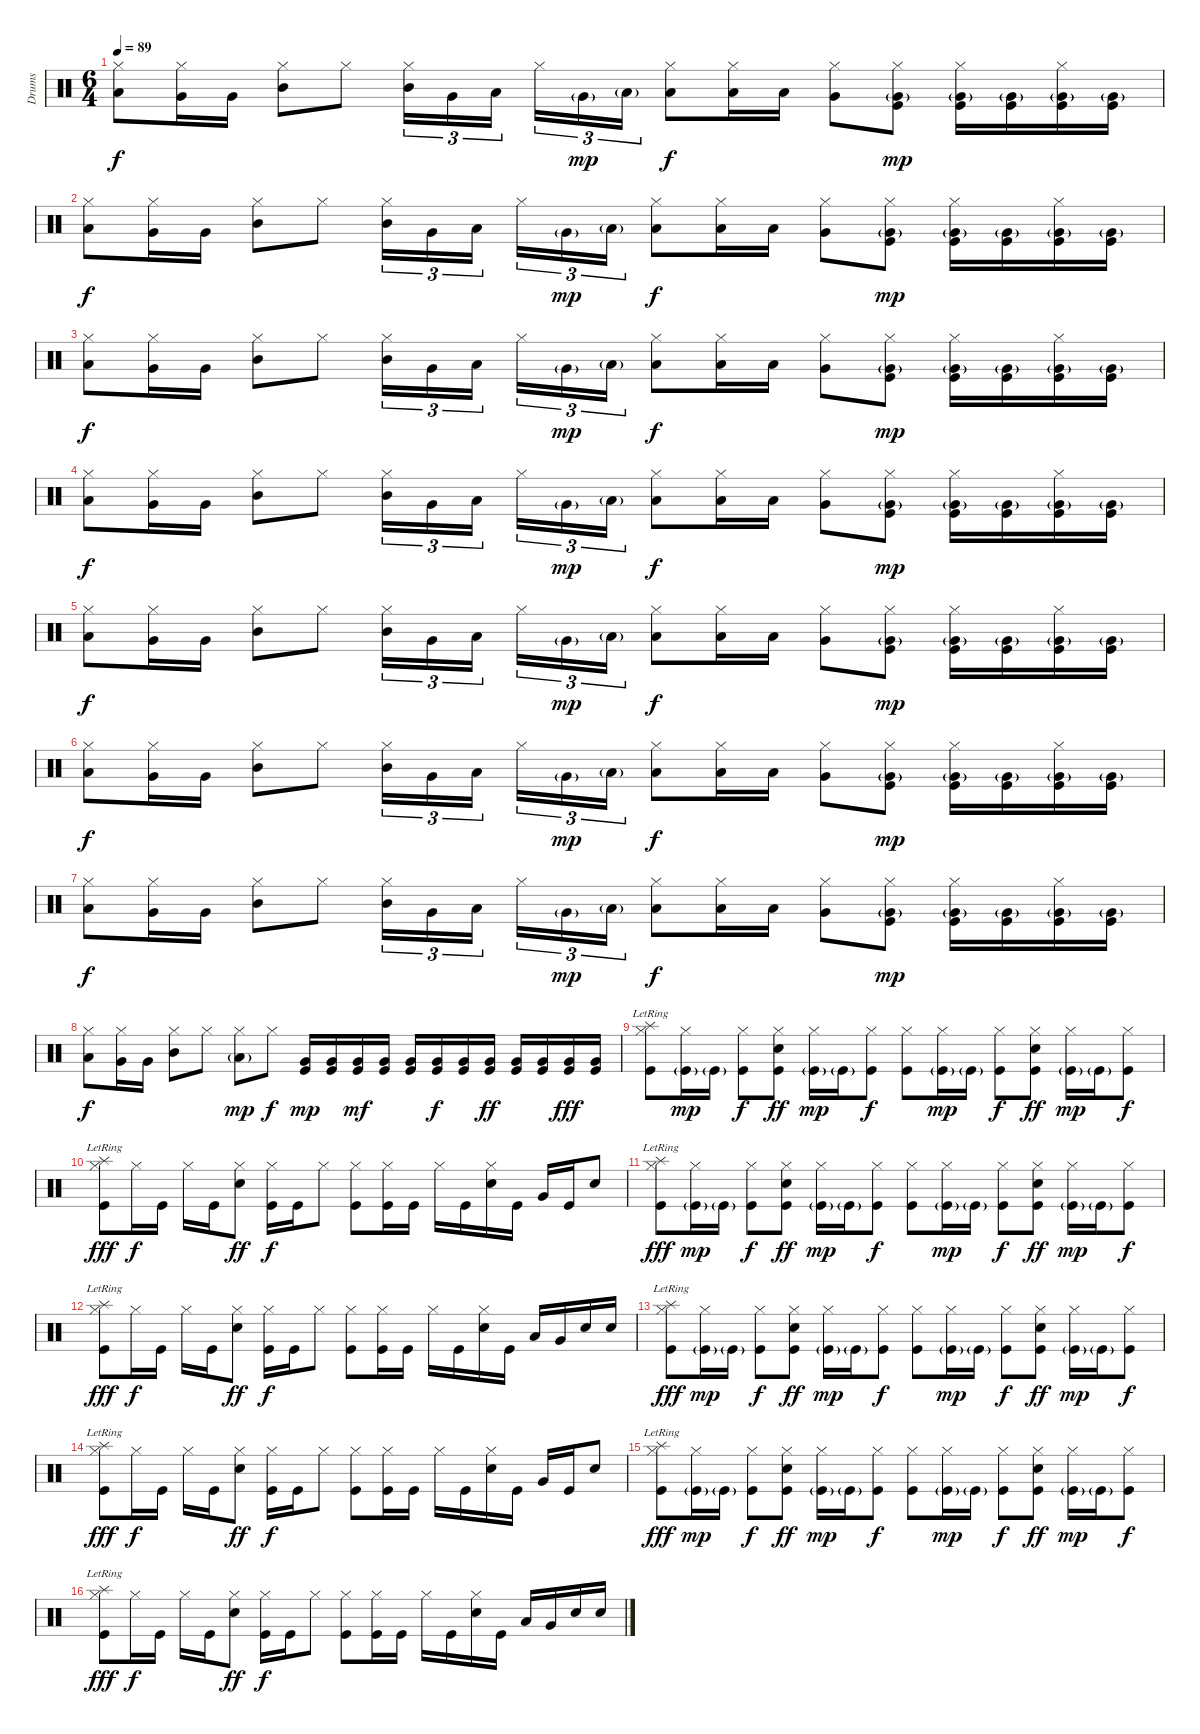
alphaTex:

\track ("Drums" "Drums") {instrument percussion}
\staff {score}
\articulation defaults
\ts (6 4)
\tempo 89
\clef neutral
\ks c
("Low Tom (hit)" "Hi-Hat (closed)").8{dy f} ("Very Low Tom (hit)" "Hi-Hat (closed)").16 "Very Low Tom (hit)".16 ("Mid Tom (hit)" "Hi-Hat (closed)").8 "Hi-Hat (closed)".8 ("Mid Tom (hit)" "Hi-Hat (closed)").16{tu (3 2)} "Very Low Tom (hit)".16{tu (3 2)} "Low Tom (hit)".16{tu (3 2)} "Hi-Hat (closed)".16{tu (3 2)} "Very Low Tom (hit)"{g}.16{tu (3 2) dy mp} "Low Tom (hit)"{g}.16{tu (3 2)} ("Low Tom (hit)" "Hi-Hat (closed)").8{dy f} ("Low Tom (hit)" "Hi-Hat (closed)").16 "Low Tom (hit)".16 ("Very Low Tom (hit)" "Hi-Hat (closed)").8 ("Very Low Tom (hit)"{g} "Hi-Hat (closed)" "Kick (hit)").8{dy mp} ("Very Low Tom (hit)"{g} "Hi-Hat (closed)" "Kick (hit)").16 ("Very Low Tom (hit)"{g} "Kick (hit)").16 ("Very Low Tom (hit)"{g} "Hi-Hat (closed)" "Kick (hit)").16 ("Very Low Tom (hit)"{g} "Kick (hit)").16 |
("Low Tom (hit)" "Hi-Hat (closed)").8{dy f} ("Very Low Tom (hit)" "Hi-Hat (closed)").16 "Very Low Tom (hit)".16 ("Mid Tom (hit)" "Hi-Hat (closed)").8 "Hi-Hat (closed)".8 ("Mid Tom (hit)" "Hi-Hat (closed)").16{tu (3 2)} "Very Low Tom (hit)".16{tu (3 2)} "Low Tom (hit)".16{tu (3 2)} "Hi-Hat (closed)".16{tu (3 2)} "Very Low Tom (hit)"{g}.16{tu (3 2) dy mp} "Low Tom (hit)"{g}.16{tu (3 2)} ("Low Tom (hit)" "Hi-Hat (closed)").8{dy f} ("Low Tom (hit)" "Hi-Hat (closed)").16 "Low Tom (hit)".16 ("Very Low Tom (hit)" "Hi-Hat (closed)").8 ("Very Low Tom (hit)"{g} "Hi-Hat (closed)" "Kick (hit)").8{dy mp} ("Very Low Tom (hit)"{g} "Hi-Hat (closed)" "Kick (hit)").16 ("Very Low Tom (hit)"{g} "Kick (hit)").16 ("Very Low Tom (hit)"{g} "Hi-Hat (closed)" "Kick (hit)").16 ("Very Low Tom (hit)"{g} "Kick (hit)").16 |
("Low Tom (hit)" "Hi-Hat (closed)").8{dy f} ("Very Low Tom (hit)" "Hi-Hat (closed)").16 "Very Low Tom (hit)".16 ("Mid Tom (hit)" "Hi-Hat (closed)").8 "Hi-Hat (closed)".8 ("Mid Tom (hit)" "Hi-Hat (closed)").16{tu (3 2)} "Very Low Tom (hit)".16{tu (3 2)} "Low Tom (hit)".16{tu (3 2)} "Hi-Hat (closed)".16{tu (3 2)} "Very Low Tom (hit)"{g}.16{tu (3 2) dy mp} "Low Tom (hit)"{g}.16{tu (3 2)} ("Low Tom (hit)" "Hi-Hat (closed)").8{dy f} ("Low Tom (hit)" "Hi-Hat (closed)").16 "Low Tom (hit)".16 ("Very Low Tom (hit)" "Hi-Hat (closed)").8 ("Very Low Tom (hit)"{g} "Hi-Hat (closed)" "Kick (hit)").8{dy mp} ("Very Low Tom (hit)"{g} "Hi-Hat (closed)" "Kick (hit)").16 ("Very Low Tom (hit)"{g} "Kick (hit)").16 ("Very Low Tom (hit)"{g} "Hi-Hat (closed)" "Kick (hit)").16 ("Very Low Tom (hit)"{g} "Kick (hit)").16 |
("Low Tom (hit)" "Hi-Hat (closed)").8{dy f} ("Very Low Tom (hit)" "Hi-Hat (closed)").16 "Very Low Tom (hit)".16 ("Mid Tom (hit)" "Hi-Hat (closed)").8 "Hi-Hat (closed)".8 ("Mid Tom (hit)" "Hi-Hat (closed)").16{tu (3 2)} "Very Low Tom (hit)".16{tu (3 2)} "Low Tom (hit)".16{tu (3 2)} "Hi-Hat (closed)".16{tu (3 2)} "Very Low Tom (hit)"{g}.16{tu (3 2) dy mp} "Low Tom (hit)"{g}.16{tu (3 2)} ("Low Tom (hit)" "Hi-Hat (closed)").8{dy f} ("Low Tom (hit)" "Hi-Hat (closed)").16 "Low Tom (hit)".16 ("Very Low Tom (hit)" "Hi-Hat (closed)").8 ("Very Low Tom (hit)"{g} "Hi-Hat (closed)" "Kick (hit)").8{dy mp} ("Very Low Tom (hit)"{g} "Hi-Hat (closed)" "Kick (hit)").16 ("Very Low Tom (hit)"{g} "Kick (hit)").16 ("Very Low Tom (hit)"{g} "Hi-Hat (closed)" "Kick (hit)").16 ("Very Low Tom (hit)"{g} "Kick (hit)").16 |
("Low Tom (hit)" "Hi-Hat (closed)").8{dy f} ("Very Low Tom (hit)" "Hi-Hat (closed)").16 "Very Low Tom (hit)".16 ("Mid Tom (hit)" "Hi-Hat (closed)").8 "Hi-Hat (closed)".8 ("Mid Tom (hit)" "Hi-Hat (closed)").16{tu (3 2)} "Very Low Tom (hit)".16{tu (3 2)} "Low Tom (hit)".16{tu (3 2)} "Hi-Hat (closed)".16{tu (3 2)} "Very Low Tom (hit)"{g}.16{tu (3 2) dy mp} "Low Tom (hit)"{g}.16{tu (3 2)} ("Low Tom (hit)" "Hi-Hat (closed)").8{dy f} ("Low Tom (hit)" "Hi-Hat (closed)").16 "Low Tom (hit)".16 ("Very Low Tom (hit)" "Hi-Hat (closed)").8 ("Very Low Tom (hit)"{g} "Hi-Hat (closed)" "Kick (hit)").8{dy mp} ("Very Low Tom (hit)"{g} "Hi-Hat (closed)" "Kick (hit)").16 ("Very Low Tom (hit)"{g} "Kick (hit)").16 ("Very Low Tom (hit)"{g} "Hi-Hat (closed)" "Kick (hit)").16 ("Very Low Tom (hit)"{g} "Kick (hit)").16 |
("Low Tom (hit)" "Hi-Hat (closed)").8{dy f} ("Very Low Tom (hit)" "Hi-Hat (closed)").16 "Very Low Tom (hit)".16 ("Mid Tom (hit)" "Hi-Hat (closed)").8 "Hi-Hat (closed)".8 ("Mid Tom (hit)" "Hi-Hat (closed)").16{tu (3 2)} "Very Low Tom (hit)".16{tu (3 2)} "Low Tom (hit)".16{tu (3 2)} "Hi-Hat (closed)".16{tu (3 2)} "Very Low Tom (hit)"{g}.16{tu (3 2) dy mp} "Low Tom (hit)"{g}.16{tu (3 2)} ("Low Tom (hit)" "Hi-Hat (closed)").8{dy f} ("Low Tom (hit)" "Hi-Hat (closed)").16 "Low Tom (hit)".16 ("Very Low Tom (hit)" "Hi-Hat (closed)").8 ("Very Low Tom (hit)"{g} "Hi-Hat (closed)" "Kick (hit)").8{dy mp} ("Very Low Tom (hit)"{g} "Hi-Hat (closed)" "Kick (hit)").16 ("Very Low Tom (hit)"{g} "Kick (hit)").16 ("Very Low Tom (hit)"{g} "Hi-Hat (closed)" "Kick (hit)").16 ("Very Low Tom (hit)"{g} "Kick (hit)").16 |
("Low Tom (hit)" "Hi-Hat (closed)").8{dy f} ("Very Low Tom (hit)" "Hi-Hat (closed)").16 "Very Low Tom (hit)".16 ("Mid Tom (hit)" "Hi-Hat (closed)").8 "Hi-Hat (closed)".8 ("Mid Tom (hit)" "Hi-Hat (closed)").16{tu (3 2)} "Very Low Tom (hit)".16{tu (3 2)} "Low Tom (hit)".16{tu (3 2)} "Hi-Hat (closed)".16{tu (3 2)} "Very Low Tom (hit)"{g}.16{tu (3 2) dy mp} "Low Tom (hit)"{g}.16{tu (3 2)} ("Low Tom (hit)" "Hi-Hat (closed)").8{dy f} ("Low Tom (hit)" "Hi-Hat (closed)").16 "Low Tom (hit)".16 ("Very Low Tom (hit)" "Hi-Hat (closed)").8 ("Very Low Tom (hit)"{g} "Hi-Hat (closed)" "Kick (hit)").8{dy mp} ("Very Low Tom (hit)"{g} "Hi-Hat (closed)" "Kick (hit)").16 ("Very Low Tom (hit)"{g} "Kick (hit)").16 ("Very Low Tom (hit)"{g} "Hi-Hat (closed)" "Kick (hit)").16 ("Very Low Tom (hit)"{g} "Kick (hit)").16 |
("Low Tom (hit)" "Hi-Hat (closed)").8{dy f} ("Very Low Tom (hit)" "Hi-Hat (closed)").16 "Very Low Tom (hit)".16 ("Mid Tom (hit)" "Hi-Hat (closed)").8 "Hi-Hat (closed)".8 ("Low Tom (hit)"{g} "Hi-Hat (closed)").8{dy mp} "Hi-Hat (closed)".8{dy f} ("Very Low Tom (hit)" "Kick (hit)").16{dy mp} ("Very Low Tom (hit)" "Kick (hit)").16 ("Very Low Tom (hit)" "Kick (hit)").16{dy mf} ("Very Low Tom (hit)" "Kick (hit)").16 ("Very Low Tom (hit)" "Kick (hit)").16 ("Very Low Tom (hit)" "Kick (hit)").16{dy f} ("Very Low Tom (hit)" "Kick (hit)").16 ("Very Low Tom (hit)" "Kick (hit)").16{dy ff} ("Very Low Tom (hit)" "Kick (hit)").16 ("Very Low Tom (hit)" "Kick (hit)").16 ("Very Low Tom (hit)" "Kick (hit)").16{dy fff} ("Very Low Tom (hit)" "Kick (hit)").16 |
("Splash (hit)"{lr} "Hi-Hat (closed)" "Kick (hit)").8 ("Hi-Hat (closed)" "Kick (hit)"{g}).16{dy mp} "Kick (hit)"{g}.16 ("Hi-Hat (closed)" "Kick (hit)").8{dy f} ("Hi-Hat (closed)" "Snare (hit) 2" "Kick (hit)").8{dy ff} ("Hi-Hat (closed)" "Kick (hit)"{g}).16{dy mp} "Kick (hit)"{g}.16 ("Hi-Hat (closed)" "Kick (hit)").8{dy f} ("Hi-Hat (closed)" "Kick (hit)").8 ("Hi-Hat (closed)" "Kick (hit)"{g}).16{dy mp} "Kick (hit)"{g}.16 ("Hi-Hat (closed)" "Kick (hit)").8{dy f} ("Hi-Hat (closed)" "Snare (hit) 2" "Kick (hit)").8{dy ff} ("Hi-Hat (closed)" "Kick (hit)"{g}).16{dy mp} "Kick (hit)"{g}.16 ("Hi-Hat (closed)" "Kick (hit)").8{dy f} |
("Splash (hit)"{lr} "Hi-Hat (closed)" "Kick (hit)").8{dy fff} "Hi-Hat (closed)".16{dy f} "Kick (hit)".16 "Hi-Hat (closed)".16 "Kick (hit)".16 ("Hi-Hat (closed)" "Snare (hit) 2").8{dy ff} ("Hi-Hat (closed)" "Kick (hit)").16{dy f} "Kick (hit)".16 "Hi-Hat (closed)".8 ("Hi-Hat (closed)" "Kick (hit)").8 ("Hi-Hat (closed)" "Kick (hit)").16 "Kick (hit)".16 "Hi-Hat (closed)".16 "Kick (hit)".16 ("Hi-Hat (closed)" "Snare (hit) 2").16 "Kick (hit)".16 "Very Low Tom (hit)".16 "Kick (hit)".16 "Snare (hit) 2".8 |
("Splash (hit)"{lr} "Hi-Hat (closed)" "Kick (hit)").8{dy fff} ("Hi-Hat (closed)" "Kick (hit)"{g}).16{dy mp} "Kick (hit)"{g}.16 ("Hi-Hat (closed)" "Kick (hit)").8{dy f} ("Hi-Hat (closed)" "Snare (hit) 2" "Kick (hit)").8{dy ff} ("Hi-Hat (closed)" "Kick (hit)"{g}).16{dy mp} "Kick (hit)"{g}.16 ("Hi-Hat (closed)" "Kick (hit)").8{dy f} ("Hi-Hat (closed)" "Kick (hit)").8 ("Hi-Hat (closed)" "Kick (hit)"{g}).16{dy mp} "Kick (hit)"{g}.16 ("Hi-Hat (closed)" "Kick (hit)").8{dy f} ("Hi-Hat (closed)" "Snare (hit) 2" "Kick (hit)").8{dy ff} ("Hi-Hat (closed)" "Kick (hit)"{g}).16{dy mp} "Kick (hit)"{g}.16 ("Hi-Hat (closed)" "Kick (hit)").8{dy f} |
("Splash (hit)"{lr} "Hi-Hat (closed)" "Kick (hit)").8{dy fff} "Hi-Hat (closed)".16{dy f} "Kick (hit)".16 "Hi-Hat (closed)".16 "Kick (hit)".16 ("Hi-Hat (closed)" "Snare (hit) 2").8{dy ff} ("Hi-Hat (closed)" "Kick (hit)").16{dy f} "Kick (hit)".16 "Hi-Hat (closed)".8 ("Hi-Hat (closed)" "Kick (hit)").8 ("Hi-Hat (closed)" "Kick (hit)").16 "Kick (hit)".16 "Hi-Hat (closed)".16 "Kick (hit)".16 ("Hi-Hat (closed)" "Snare (hit) 2").16 "Kick (hit)".16 "Low Tom (hit)".16 "Very Low Tom (hit)".16 "Snare (hit) 2".16 "Snare (hit) 2".16 |
("Splash (hit)"{lr} "Hi-Hat (closed)" "Kick (hit)").8{dy fff} ("Hi-Hat (closed)" "Kick (hit)"{g}).16{dy mp} "Kick (hit)"{g}.16 ("Hi-Hat (closed)" "Kick (hit)").8{dy f} ("Hi-Hat (closed)" "Snare (hit) 2" "Kick (hit)").8{dy ff} ("Hi-Hat (closed)" "Kick (hit)"{g}).16{dy mp} "Kick (hit)"{g}.16 ("Hi-Hat (closed)" "Kick (hit)").8{dy f} ("Hi-Hat (closed)" "Kick (hit)").8 ("Hi-Hat (closed)" "Kick (hit)"{g}).16{dy mp} "Kick (hit)"{g}.16 ("Hi-Hat (closed)" "Kick (hit)").8{dy f} ("Hi-Hat (closed)" "Snare (hit) 2" "Kick (hit)").8{dy ff} ("Hi-Hat (closed)" "Kick (hit)"{g}).16{dy mp} "Kick (hit)"{g}.16 ("Hi-Hat (closed)" "Kick (hit)").8{dy f} |
("Splash (hit)"{lr} "Hi-Hat (closed)" "Kick (hit)").8{dy fff} "Hi-Hat (closed)".16{dy f} "Kick (hit)".16 "Hi-Hat (closed)".16 "Kick (hit)".16 ("Hi-Hat (closed)" "Snare (hit) 2").8{dy ff} ("Hi-Hat (closed)" "Kick (hit)").16{dy f} "Kick (hit)".16 "Hi-Hat (closed)".8 ("Hi-Hat (closed)" "Kick (hit)").8 ("Hi-Hat (closed)" "Kick (hit)").16 "Kick (hit)".16 "Hi-Hat (closed)".16 "Kick (hit)".16 ("Hi-Hat (closed)" "Snare (hit) 2").16 "Kick (hit)".16 "Very Low Tom (hit)".16 "Kick (hit)".16 "Snare (hit) 2".8 |
("Splash (hit)"{lr} "Hi-Hat (closed)" "Kick (hit)").8{dy fff} ("Hi-Hat (closed)" "Kick (hit)"{g}).16{dy mp} "Kick (hit)"{g}.16 ("Hi-Hat (closed)" "Kick (hit)").8{dy f} ("Hi-Hat (closed)" "Snare (hit) 2" "Kick (hit)").8{dy ff} ("Hi-Hat (closed)" "Kick (hit)"{g}).16{dy mp} "Kick (hit)"{g}.16 ("Hi-Hat (closed)" "Kick (hit)").8{dy f} ("Hi-Hat (closed)" "Kick (hit)").8 ("Hi-Hat (closed)" "Kick (hit)"{g}).16{dy mp} "Kick (hit)"{g}.16 ("Hi-Hat (closed)" "Kick (hit)").8{dy f} ("Hi-Hat (closed)" "Snare (hit) 2" "Kick (hit)").8{dy ff} ("Hi-Hat (closed)" "Kick (hit)"{g}).16{dy mp} "Kick (hit)"{g}.16 ("Hi-Hat (closed)" "Kick (hit)").8{dy f} |
("Splash (hit)"{lr} "Hi-Hat (closed)" "Kick (hit)").8{dy fff} "Hi-Hat (closed)".16{dy f} "Kick (hit)".16 "Hi-Hat (closed)".16 "Kick (hit)".16 ("Hi-Hat (closed)" "Snare (hit) 2").8{dy ff} ("Hi-Hat (closed)" "Kick (hit)").16{dy f} "Kick (hit)".16 "Hi-Hat (closed)".8 ("Hi-Hat (closed)" "Kick (hit)").8 ("Hi-Hat (closed)" "Kick (hit)").16 "Kick (hit)".16 "Hi-Hat (closed)".16 "Kick (hit)".16 ("Hi-Hat (closed)" "Snare (hit) 2").16 "Kick (hit)".16 "Low Tom (hit)".16 "Very Low Tom (hit)".16 "Snare (hit) 2".16 "Snare (hit) 2".16
